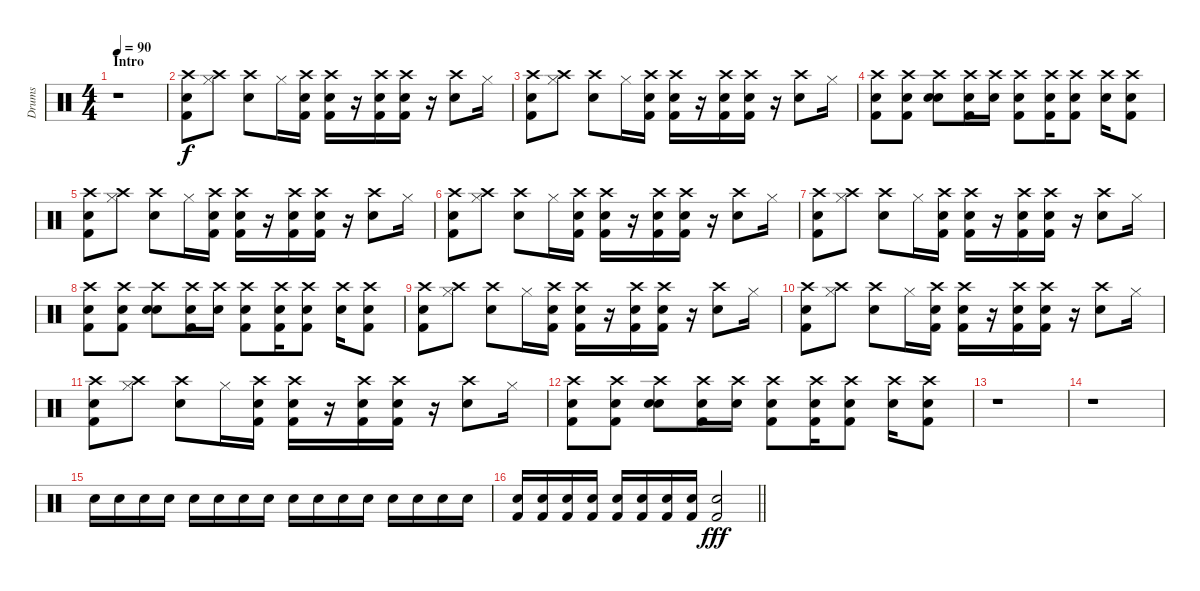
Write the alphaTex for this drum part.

\track ("Drums" "Drums") {instrument percussion}
\staff {score}
\articulation defaults
\ts (4 4)
\section ("" "Intro")
\tempo 90
\clef neutral
\ks c
r.1{dy f} |
("Crash high (hit)" "Kick (hit) 2" "Snare (hit) 2").8 ("Crash high (hit)" "Hi-Hat (closed)").8 ("Crash high (hit)" "Electric Snare (hit)").8 "Hi-Hat (closed)".16 ("Crash high (hit)" "Kick (hit) 2" "Snare (hit) 2").16 ("Crash high (hit)" "Kick (hit) 2" "Snare (hit) 2").16 r.16 ("Crash high (hit)" "Kick (hit) 2" "Snare (hit) 2").16 ("Crash high (hit)" "Kick (hit) 2" "Snare (hit) 2").16 r.16 ("Crash high (hit)" "Electric Snare (hit)").8 "Hi-Hat (closed)".16 |
("Crash high (hit)" "Kick (hit) 2" "Snare (hit) 2").8 ("Crash high (hit)" "Hi-Hat (closed)").8 ("Crash high (hit)" "Electric Snare (hit)").8 "Hi-Hat (closed)".16 ("Crash high (hit)" "Kick (hit) 2" "Snare (hit) 2").16 ("Crash high (hit)" "Kick (hit) 2" "Snare (hit) 2").16 r.16 ("Crash high (hit)" "Kick (hit) 2" "Snare (hit) 2").16 ("Crash high (hit)" "Kick (hit) 2" "Snare (hit) 2").16 r.16 ("Crash high (hit)" "Electric Snare (hit)").8 "Hi-Hat (closed)".16 |
("Crash high (hit)" "Kick (hit) 2" "Snare (hit) 2").8 ("Crash high (hit)" "Kick (hit) 2" "Snare (hit) 2").8 ("Crash high (hit)" "Electric Snare (hit)" "Electric Snare (hit)").8 ("Crash high (hit)" "Kick (hit) 2" "Snare (hit) 2").16 ("Crash high (hit)" "Electric Snare (hit)").16 ("Crash high (hit)" "Kick (hit) 2" "Snare (hit) 2").8 ("Crash high (hit)" "Kick (hit) 2" "Snare (hit) 2").16 ("Crash high (hit)" "Kick (hit) 2" "Snare (hit) 2").8 ("Crash high (hit)" "Electric Snare (hit)").16 ("Crash high (hit)" "Kick (hit) 2" "Snare (hit) 2").8 |
("Crash high (hit)" "Kick (hit) 2" "Snare (hit) 2").8 ("Crash high (hit)" "Hi-Hat (closed)").8 ("Crash high (hit)" "Electric Snare (hit)").8 "Hi-Hat (closed)".16 ("Crash high (hit)" "Kick (hit) 2" "Snare (hit) 2").16 ("Crash high (hit)" "Kick (hit) 2" "Snare (hit) 2").16 r.16 ("Crash high (hit)" "Kick (hit) 2" "Snare (hit) 2").16 ("Crash high (hit)" "Kick (hit) 2" "Snare (hit) 2").16 r.16 ("Crash high (hit)" "Electric Snare (hit)").8 "Hi-Hat (closed)".16 |
("Crash high (hit)" "Kick (hit) 2" "Snare (hit) 2").8 ("Crash high (hit)" "Hi-Hat (closed)").8 ("Crash high (hit)" "Electric Snare (hit)").8 "Hi-Hat (closed)".16 ("Crash high (hit)" "Kick (hit) 2" "Snare (hit) 2").16 ("Crash high (hit)" "Kick (hit) 2" "Snare (hit) 2").16 r.16 ("Crash high (hit)" "Kick (hit) 2" "Snare (hit) 2").16 ("Crash high (hit)" "Kick (hit) 2" "Snare (hit) 2").16 r.16 ("Crash high (hit)" "Electric Snare (hit)").8 "Hi-Hat (closed)".16 |
("Crash high (hit)" "Kick (hit) 2" "Snare (hit) 2").8 ("Crash high (hit)" "Hi-Hat (closed)").8 ("Crash high (hit)" "Electric Snare (hit)").8 "Hi-Hat (closed)".16 ("Crash high (hit)" "Kick (hit) 2" "Snare (hit) 2").16 ("Crash high (hit)" "Kick (hit) 2" "Snare (hit) 2").16 r.16 ("Crash high (hit)" "Kick (hit) 2" "Snare (hit) 2").16 ("Crash high (hit)" "Kick (hit) 2" "Snare (hit) 2").16 r.16 ("Crash high (hit)" "Electric Snare (hit)").8 "Hi-Hat (closed)".16 |
("Crash high (hit)" "Kick (hit) 2" "Snare (hit) 2").8 ("Crash high (hit)" "Kick (hit) 2" "Snare (hit) 2").8 ("Crash high (hit)" "Electric Snare (hit)" "Electric Snare (hit)").8 ("Crash high (hit)" "Kick (hit) 2" "Snare (hit) 2").16 ("Crash high (hit)" "Electric Snare (hit)").16 ("Crash high (hit)" "Kick (hit) 2" "Snare (hit) 2").8 ("Crash high (hit)" "Kick (hit) 2" "Snare (hit) 2").16 ("Crash high (hit)" "Kick (hit) 2" "Snare (hit) 2").8 ("Crash high (hit)" "Electric Snare (hit)").16 ("Crash high (hit)" "Kick (hit) 2" "Snare (hit) 2").8 |
("Crash high (hit)" "Kick (hit) 2" "Snare (hit) 2").8 ("Crash high (hit)" "Hi-Hat (closed)").8 ("Crash high (hit)" "Electric Snare (hit)").8 "Hi-Hat (closed)".16 ("Crash high (hit)" "Kick (hit) 2" "Snare (hit) 2").16 ("Crash high (hit)" "Kick (hit) 2" "Snare (hit) 2").16 r.16 ("Crash high (hit)" "Kick (hit) 2" "Snare (hit) 2").16 ("Crash high (hit)" "Kick (hit) 2" "Snare (hit) 2").16 r.16 ("Crash high (hit)" "Electric Snare (hit)").8 "Hi-Hat (closed)".16 |
("Crash high (hit)" "Kick (hit) 2" "Snare (hit) 2").8 ("Crash high (hit)" "Hi-Hat (closed)").8 ("Crash high (hit)" "Electric Snare (hit)").8 "Hi-Hat (closed)".16 ("Crash high (hit)" "Kick (hit) 2" "Snare (hit) 2").16 ("Crash high (hit)" "Kick (hit) 2" "Snare (hit) 2").16 r.16 ("Crash high (hit)" "Kick (hit) 2" "Snare (hit) 2").16 ("Crash high (hit)" "Kick (hit) 2" "Snare (hit) 2").16 r.16 ("Crash high (hit)" "Electric Snare (hit)").8 "Hi-Hat (closed)".16 |
("Crash high (hit)" "Kick (hit) 2" "Snare (hit) 2").8 ("Crash high (hit)" "Hi-Hat (closed)").8 ("Crash high (hit)" "Electric Snare (hit)").8 "Hi-Hat (closed)".16 ("Crash high (hit)" "Kick (hit) 2" "Snare (hit) 2").16 ("Crash high (hit)" "Kick (hit) 2" "Snare (hit) 2").16 r.16 ("Crash high (hit)" "Kick (hit) 2" "Snare (hit) 2").16 ("Crash high (hit)" "Kick (hit) 2" "Snare (hit) 2").16 r.16 ("Crash high (hit)" "Electric Snare (hit)").8 "Hi-Hat (closed)".16 |
("Crash high (hit)" "Kick (hit) 2" "Snare (hit) 2").8 ("Crash high (hit)" "Kick (hit) 2" "Snare (hit) 2").8 ("Crash high (hit)" "Electric Snare (hit)" "Electric Snare (hit)").8 ("Crash high (hit)" "Kick (hit) 2" "Snare (hit) 2").16 ("Crash high (hit)" "Electric Snare (hit)").16 ("Crash high (hit)" "Kick (hit) 2" "Snare (hit) 2").8 ("Crash high (hit)" "Kick (hit) 2" "Snare (hit) 2").16 ("Crash high (hit)" "Kick (hit) 2" "Snare (hit) 2").8 ("Crash high (hit)" "Electric Snare (hit)").16 ("Crash high (hit)" "Kick (hit) 2" "Snare (hit) 2").8 |
r.1 |
r.1 |
"Snare (hit) 2".16{volume 0} "Snare (hit) 2".16{volume 13} "Snare (hit) 2".16 "Snare (hit) 2".16 "Snare (hit) 2".16 "Snare (hit) 2".16 "Snare (hit) 2".16 "Snare (hit) 2".16 "Snare (hit) 2".16 "Snare (hit) 2".16 "Snare (hit) 2".16 "Snare (hit) 2".16 "Snare (hit) 2".16 "Snare (hit) 2".16 "Snare (hit) 2".16 "Snare (hit) 2".16 |
\barLineRight lightlight
("Kick (hit) 2" "Snare (hit) 2").16 ("Kick (hit) 2" "Snare (hit) 2").16 ("Kick (hit) 2" "Snare (hit) 2").16 ("Kick (hit) 2" "Snare (hit) 2").16 ("Kick (hit) 2" "Snare (hit) 2").16 ("Kick (hit) 2" "Snare (hit) 2").16 ("Kick (hit) 2" "Snare (hit) 2").16 ("Kick (hit) 2" "Snare (hit) 2").16 ("Kick (hit) 2" "Snare (hit) 2").2{dy fff}
